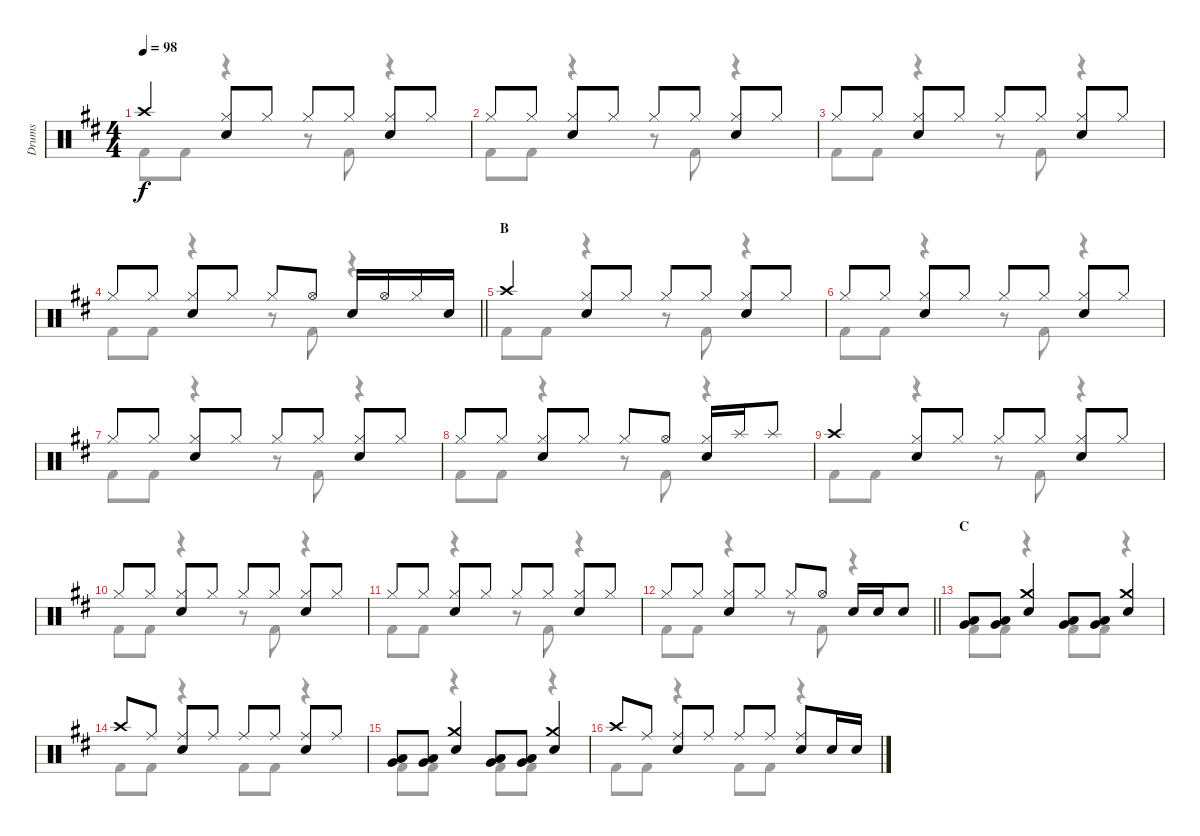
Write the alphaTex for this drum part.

\track ("Drums" "Drums") {instrument percussion}
\staff {score}
\articulation defaults
\voice
\ts (4 4)
\tempo 98
\clef neutral
\ks d "Crash high (hit)".4{dy f}
("Hi-Hat (closed)" "Snare (hit) 2").8 "Hi-Hat (closed)".8 "Hi-Hat (closed)".8 "Hi-Hat (closed)".8 ("Hi-Hat (closed)" "Snare (hit) 2").8 "Hi-Hat (closed)".8 |
"Hi-Hat (closed)".8 "Hi-Hat (closed)".8 ("Hi-Hat (closed)" "Snare (hit) 2").8 "Hi-Hat (closed)".8 "Hi-Hat (closed)".8 "Hi-Hat (closed)".8 ("Hi-Hat (closed)" "Snare (hit) 2").8 "Hi-Hat (closed)".8 |
"Hi-Hat (closed)".8 "Hi-Hat (closed)".8 ("Hi-Hat (closed)" "Snare (hit) 2").8 "Hi-Hat (closed)".8 "Hi-Hat (closed)".8 "Hi-Hat (closed)".8 ("Hi-Hat (closed)" "Snare (hit) 2").8 "Hi-Hat (closed)".8 |
\barLineRight lightlight "Hi-Hat (closed)".8 "Hi-Hat (closed)".8
("Hi-Hat (closed)" "Snare (hit) 2").8 "Hi-Hat (closed)".8 "Hi-Hat (closed)".8 "Hi-Hat (open)".8 "Snare (hit) 2".16 "Hi-Hat (open)".16 "Hi-Hat (closed)".16 "Snare (hit) 2".16 |
\section ("" "B")
"Crash high (hit)".4 ("Hi-Hat (closed)" "Snare (hit) 2").8 "Hi-Hat (closed)".8 "Hi-Hat (closed)".8 "Hi-Hat (closed)".8 ("Hi-Hat (closed)" "Snare (hit) 2").8 "Hi-Hat (closed)".8 |
"Hi-Hat (closed)".8 "Hi-Hat (closed)".8 ("Hi-Hat (closed)" "Snare (hit) 2").8 "Hi-Hat (closed)".8 "Hi-Hat (closed)".8 "Hi-Hat (closed)".8 ("Hi-Hat (closed)" "Snare (hit) 2").8 "Hi-Hat (closed)".8 |
"Hi-Hat (closed)".8 "Hi-Hat (closed)".8 ("Hi-Hat (closed)" "Snare (hit) 2").8 "Hi-Hat (closed)".8 "Hi-Hat (closed)".8 "Hi-Hat (closed)".8 ("Hi-Hat (closed)" "Snare (hit) 2").8 "Hi-Hat (closed)".8 |
"Hi-Hat (closed)".8 "Hi-Hat (closed)".8 ("Hi-Hat (closed)" "Snare (hit) 2").8 "Hi-Hat (closed)".8 "Hi-Hat (closed)".8 "Hi-Hat (open)".8 ("Hi-Hat (closed)" "Snare (hit) 2").16 "Splash (hit)".16 "Splash (hit)".8 |
"Crash high (hit)".4 ("Hi-Hat (closed)" "Snare (hit) 2").8 "Hi-Hat (closed)".8 "Hi-Hat (closed)".8 "Hi-Hat (closed)".8 ("Hi-Hat (closed)" "Snare (hit) 2").8 "Hi-Hat (closed)".8 |
"Hi-Hat (closed)".8 "Hi-Hat (closed)".8 ("Hi-Hat (closed)" "Snare (hit) 2").8 "Hi-Hat (closed)".8 "Hi-Hat (closed)".8 "Hi-Hat (closed)".8 ("Hi-Hat (closed)" "Snare (hit) 2").8 "Hi-Hat (closed)".8 |
"Hi-Hat (closed)".8 "Hi-Hat (closed)".8 ("Hi-Hat (closed)" "Snare (hit) 2").8 "Hi-Hat (closed)".8 "Hi-Hat (closed)".8 "Hi-Hat (closed)".8 ("Hi-Hat (closed)" "Snare (hit) 2").8 "Hi-Hat (closed)".8 |
\barLineRight lightlight "Hi-Hat (closed)".8 "Hi-Hat (closed)".8
("Hi-Hat (closed)" "Snare (hit) 2").8 "Hi-Hat (closed)".8 "Hi-Hat (closed)".8 "Hi-Hat (open)".8 "Snare (hit) 2".16 "Snare (hit) 2".16 "Snare (hit)".8 |
\section ("" "C")
("Low Tom (hit)" "Very Low Tom (hit)").8 ("Low Tom (hit)" "Very Low Tom (hit)").8 ("Crash medium (hit)" "Snare (hit) 2").4 ("Low Tom (hit)" "Very Low Tom (hit)").8 ("Low Tom (hit)" "Very Low Tom (hit)").8 ("Crash medium (hit)" "Snare (hit) 2").4 |
"Crash high (hit)".8 "Ride (middle)".8 ("Ride (middle)" "Snare (hit) 2").8 "Ride (middle)".8 "Ride (middle)".8 "Ride (middle)".8 ("Ride (middle)" "Snare (hit) 2").8 "Ride (middle)".8 |
("Low Tom (hit)" "Very Low Tom (hit)").8 ("Low Tom (hit)" "Very Low Tom (hit)").8 ("Crash medium (hit)" "Snare (hit) 2").4 ("Low Tom (hit)" "Very Low Tom (hit)").8 ("Low Tom (hit)" "Very Low Tom (hit)").8 ("Crash medium (hit)" "Snare (hit) 2").4 |
"Crash high (hit)".8 "Ride (middle)".8 ("Ride (middle)" "Snare (hit) 2").8 "Ride (middle)".8 "Ride (middle)".8 "Ride (middle)".8 ("Ride (middle)" "Snare (hit) 2").8 "Snare (hit) 2".16 "Snare (hit) 2".16
\voice
\clef neutral
\ottava regular
\simile none
\ks d "Kick (hit) 2".8{dy f} "Kick (hit) 2".8
r.4 r.8 "Kick (hit) 2".8 r.4 |
"Kick (hit) 2".8 "Kick (hit) 2".8 r.4 r.8 "Kick (hit) 2".8 r.4 |
"Kick (hit) 2".8 "Kick (hit) 2".8 r.4 r.8 "Kick (hit) 2".8 r.4 |
\barLineRight lightlight "Kick (hit) 2".8 "Kick (hit) 2".8
r.4 r.8 "Kick (hit) 2".8 r.4 |
"Kick (hit) 2".8 "Kick (hit) 2".8 r.4 r.8 "Kick (hit) 2".8 r.4 |
"Kick (hit) 2".8 "Kick (hit) 2".8 r.4 r.8 "Kick (hit) 2".8 r.4 |
"Kick (hit) 2".8 "Kick (hit) 2".8 r.4 r.8 "Kick (hit) 2".8 r.4 |
"Kick (hit) 2".8 "Kick (hit) 2".8 r.4 r.8 "Kick (hit) 2".8 r.4 |
"Kick (hit) 2".8 "Kick (hit) 2".8 r.4 r.8 "Kick (hit) 2".8 r.4 |
"Kick (hit) 2".8 "Kick (hit) 2".8 r.4 r.8 "Kick (hit) 2".8 r.4 |
"Kick (hit) 2".8 "Kick (hit) 2".8 r.4 r.8 "Kick (hit) 2".8 r.4 |
\barLineRight lightlight "Kick (hit) 2".8 "Kick (hit) 2".8
r.4 r.8 "Kick (hit) 2".8 r.4 |
"Kick (hit) 2".8 "Kick (hit) 2".8 r.4 "Kick (hit) 2".8 "Kick (hit) 2".8 r.4 |
"Kick (hit) 2".8 "Kick (hit) 2".8 r.4 "Kick (hit) 2".8 "Kick (hit) 2".8 r.4 |
"Kick (hit) 2".8 "Kick (hit) 2".8 r.4 "Kick (hit) 2".8 "Kick (hit) 2".8 r.4 |
"Kick (hit) 2".8 "Kick (hit) 2".8 r.4 "Kick (hit) 2".8 "Kick (hit) 2".8 r.4
